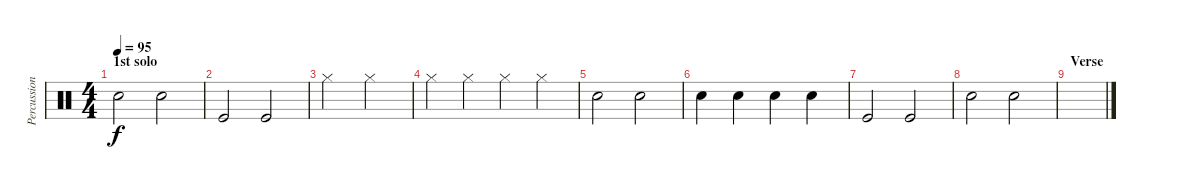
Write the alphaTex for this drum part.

\track ("Percussion" "Percussion") {instrument percussion}
\staff {score}
\articulation defaults
\ts (4 4)
\section ("" "1st solo")
\tempo 95
\clef neutral
\ks c "Electric Snare (hit)".2{dy f} "Electric Snare (hit)".2
|
"Kick (hit)".2 "Kick (hit)".2 |
"Hi-Hat (closed)".2 "Hi-Hat (closed)".2 |
"Hi-Hat (closed)".4 "Hi-Hat (closed)".4 "Hi-Hat (closed)".4 "Hi-Hat (closed)".4 |
"Electric Snare (hit)".2 "Electric Snare (hit)".2 |
"Electric Snare (hit)".4 "Electric Snare (hit)".4 "Electric Snare (hit)".4 "Electric Snare (hit)".4 |
"Kick (hit)".2 "Kick (hit)".2 |
"Electric Snare (hit)".2 "Electric Snare (hit)".2 |
\section ("" "Verse")
